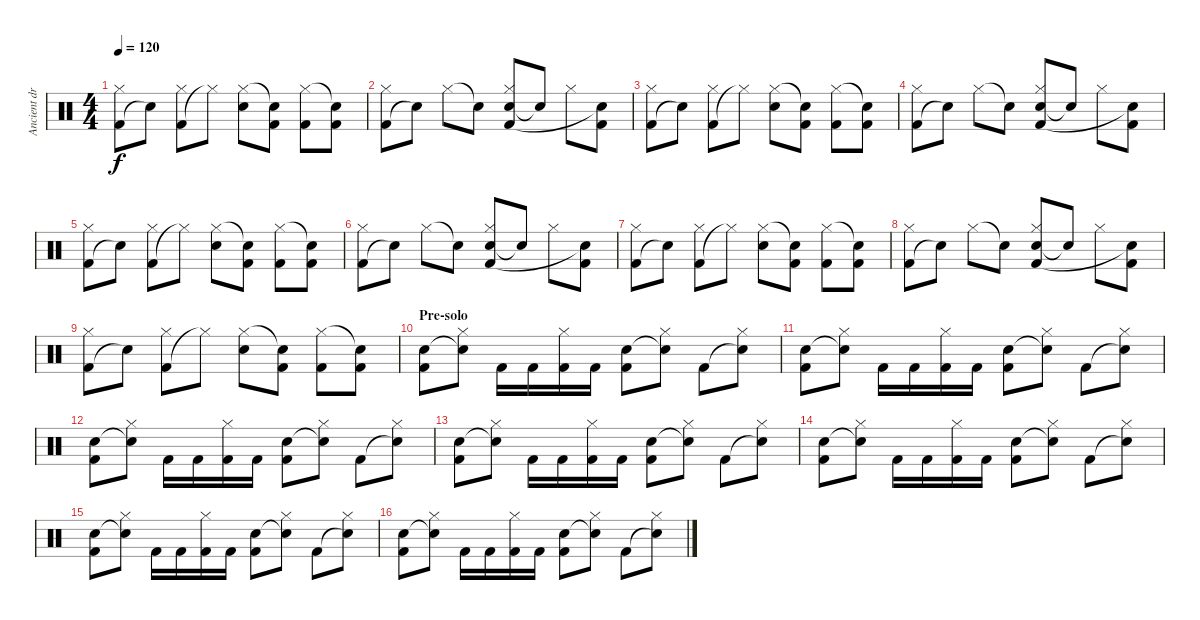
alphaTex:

\track ("Ancient drum type things :S" "Ancient dr") {instrument percussion}
\staff {score}
\articulation defaults
\ts (4 4)
\tempo 120
\clef neutral
\ks c
("Kick (hit) 2" "Hi-Hat (closed)").8{dy f} "Snare (hit)"{t}.8 ("Kick (hit) 2" "Hi-Hat (closed)").8 "Hi-Hat (closed)"{t}.8 ("Snare (hit) 2" "Hi-Hat (closed)").8 ("Kick (hit) 2" "Snare (hit)"{t}).8 ("Kick (hit) 2" "Hi-Hat (closed)").8 ("Kick (hit) 2" "Snare (hit)"{t}).8 |
("Kick (hit) 2" "Hi-Hat (closed)").8 "Snare (hit)"{t}.8 "Hi-Hat (closed)".8 "Snare (hit)"{t}.8 ("Snare (hit) 2" "Kick (hit) 2" "Hi-Hat (closed)").8 "Snare (hit)"{t}.8 "Hi-Hat (closed)".8 ("Kick (hit) 2" "Snare (hit)"{t}).8 |
("Kick (hit) 2" "Hi-Hat (closed)").8 "Snare (hit)"{t}.8 ("Kick (hit) 2" "Hi-Hat (closed)").8 "Hi-Hat (closed)"{t}.8 ("Snare (hit) 2" "Hi-Hat (closed)").8 ("Kick (hit) 2" "Snare (hit)"{t}).8 ("Kick (hit) 2" "Hi-Hat (closed)").8 ("Kick (hit) 2" "Snare (hit)"{t}).8 |
("Kick (hit) 2" "Hi-Hat (closed)").8 "Snare (hit)"{t}.8 "Hi-Hat (closed)".8 "Snare (hit)"{t}.8 ("Snare (hit) 2" "Kick (hit) 2" "Hi-Hat (closed)").8 "Snare (hit)"{t}.8 "Hi-Hat (closed)".8 ("Kick (hit) 2" "Snare (hit)"{t}).8 |
("Kick (hit) 2" "Hi-Hat (closed)").8 "Snare (hit)"{t}.8 ("Kick (hit) 2" "Hi-Hat (closed)").8 "Hi-Hat (closed)"{t}.8 ("Snare (hit) 2" "Hi-Hat (closed)").8 ("Kick (hit) 2" "Snare (hit)"{t}).8 ("Kick (hit) 2" "Hi-Hat (closed)").8 ("Kick (hit) 2" "Snare (hit)"{t}).8 |
("Kick (hit) 2" "Hi-Hat (closed)").8 "Snare (hit)"{t}.8 "Hi-Hat (closed)".8 "Snare (hit)"{t}.8 ("Snare (hit) 2" "Kick (hit) 2" "Hi-Hat (closed)").8 "Snare (hit)"{t}.8 "Hi-Hat (closed)".8 ("Kick (hit) 2" "Snare (hit)"{t}).8 |
("Kick (hit) 2" "Hi-Hat (closed)").8 "Snare (hit)"{t}.8 ("Kick (hit) 2" "Hi-Hat (closed)").8 "Hi-Hat (closed)"{t}.8 ("Snare (hit) 2" "Hi-Hat (closed)").8 ("Kick (hit) 2" "Snare (hit)"{t}).8 ("Kick (hit) 2" "Hi-Hat (closed)").8 ("Kick (hit) 2" "Snare (hit)"{t}).8 |
("Kick (hit) 2" "Hi-Hat (closed)").8 "Snare (hit)"{t}.8 "Hi-Hat (closed)".8 "Snare (hit)"{t}.8 ("Snare (hit) 2" "Kick (hit) 2" "Hi-Hat (closed)").8 "Snare (hit)"{t}.8 "Hi-Hat (closed)".8 ("Kick (hit) 2" "Snare (hit)"{t}).8 |
("Kick (hit) 2" "Hi-Hat (closed)").8 "Snare (hit)"{t}.8 ("Kick (hit) 2" "Hi-Hat (closed)").8 "Hi-Hat (closed)"{t}.8 ("Snare (hit) 2" "Hi-Hat (closed)").8 ("Kick (hit) 2" "Snare (hit)"{t}).8 ("Kick (hit) 2" "Hi-Hat (closed)").8 ("Kick (hit) 2" "Snare (hit)"{t}).8 |
\section ("" "Pre-solo")
("Snare (hit) 2" "Kick (hit) 2").8 ("Snare (hit)"{t} "Hi-Hat (closed)").8 "Kick (hit) 2".16 "Kick (hit) 2".16 ("Kick (hit) 2" "Hi-Hat (closed)").16 "Kick (hit) 2".16 ("Snare (hit) 2" "Kick (hit) 2").8 ("Snare (hit)"{t} "Hi-Hat (closed)").8 "Kick (hit) 2".8 ("Snare (hit)"{t} "Hi-Hat (closed)").8 |
("Snare (hit) 2" "Kick (hit) 2").8 ("Snare (hit)"{t} "Hi-Hat (closed)").8 "Kick (hit) 2".16 "Kick (hit) 2".16 ("Kick (hit) 2" "Hi-Hat (closed)").16 "Kick (hit) 2".16 ("Snare (hit) 2" "Kick (hit) 2").8 ("Snare (hit)"{t} "Hi-Hat (closed)").8 "Kick (hit) 2".8 ("Snare (hit)"{t} "Hi-Hat (closed)").8 |
("Snare (hit) 2" "Kick (hit) 2").8 ("Snare (hit)"{t} "Hi-Hat (closed)").8 "Kick (hit) 2".16 "Kick (hit) 2".16 ("Kick (hit) 2" "Hi-Hat (closed)").16 "Kick (hit) 2".16 ("Snare (hit) 2" "Kick (hit) 2").8 ("Snare (hit)"{t} "Hi-Hat (closed)").8 "Kick (hit) 2".8 ("Snare (hit)"{t} "Hi-Hat (closed)").8 |
("Snare (hit) 2" "Kick (hit) 2").8 ("Snare (hit)"{t} "Hi-Hat (closed)").8 "Kick (hit) 2".16 "Kick (hit) 2".16 ("Kick (hit) 2" "Hi-Hat (closed)").16 "Kick (hit) 2".16 ("Snare (hit) 2" "Kick (hit) 2").8 ("Snare (hit)"{t} "Hi-Hat (closed)").8 "Kick (hit) 2".8 ("Snare (hit)"{t} "Hi-Hat (closed)").8 |
("Snare (hit) 2" "Kick (hit) 2").8 ("Snare (hit)"{t} "Hi-Hat (closed)").8 "Kick (hit) 2".16 "Kick (hit) 2".16 ("Kick (hit) 2" "Hi-Hat (closed)").16 "Kick (hit) 2".16 ("Snare (hit) 2" "Kick (hit) 2").8 ("Snare (hit)"{t} "Hi-Hat (closed)").8 "Kick (hit) 2".8 ("Snare (hit)"{t} "Hi-Hat (closed)").8 |
("Snare (hit) 2" "Kick (hit) 2").8 ("Snare (hit)"{t} "Hi-Hat (closed)").8 "Kick (hit) 2".16 "Kick (hit) 2".16 ("Kick (hit) 2" "Hi-Hat (closed)").16 "Kick (hit) 2".16 ("Snare (hit) 2" "Kick (hit) 2").8 ("Snare (hit)"{t} "Hi-Hat (closed)").8 "Kick (hit) 2".8 ("Snare (hit)"{t} "Hi-Hat (closed)").8 |
("Snare (hit) 2" "Kick (hit) 2").8 ("Snare (hit)"{t} "Hi-Hat (closed)").8 "Kick (hit) 2".16 "Kick (hit) 2".16 ("Kick (hit) 2" "Hi-Hat (closed)").16 "Kick (hit) 2".16 ("Snare (hit) 2" "Kick (hit) 2").8 ("Snare (hit)"{t} "Hi-Hat (closed)").8 "Kick (hit) 2".8 ("Snare (hit)"{t} "Hi-Hat (closed)").8
